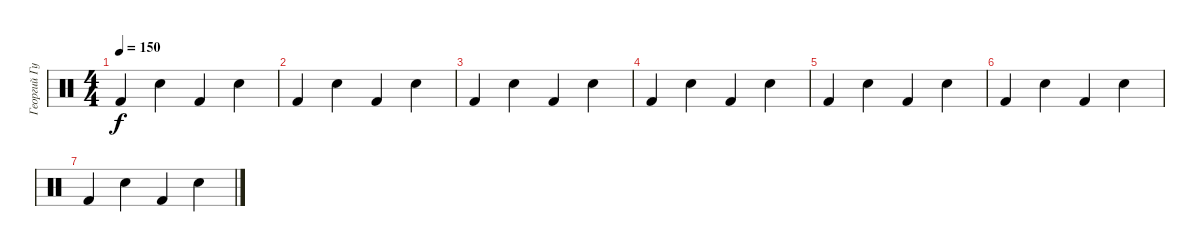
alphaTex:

\track ("Георгий Гурьянов" "Георгий Гу") {instrument percussion}
\staff {score}
\articulation defaults
\ts (4 4)
\tempo 150
\clef neutral
\ks c "Kick (hit) 2".4{dy f} "Snare (hit) 2".4 "Kick (hit) 2".4 "Snare (hit) 2".4
|
"Kick (hit) 2".4 "Snare (hit) 2".4 "Kick (hit) 2".4 "Snare (hit) 2".4 |
"Kick (hit) 2".4 "Snare (hit) 2".4 "Kick (hit) 2".4 "Snare (hit) 2".4 |
"Kick (hit) 2".4 "Snare (hit) 2".4 "Kick (hit) 2".4 "Snare (hit) 2".4 |
"Kick (hit) 2".4 "Snare (hit) 2".4 "Kick (hit) 2".4 "Snare (hit) 2".4 |
"Kick (hit) 2".4 "Snare (hit) 2".4 "Kick (hit) 2".4 "Snare (hit) 2".4 |
"Kick (hit) 2".4 "Snare (hit) 2".4 "Kick (hit) 2".4 "Snare (hit) 2".4
